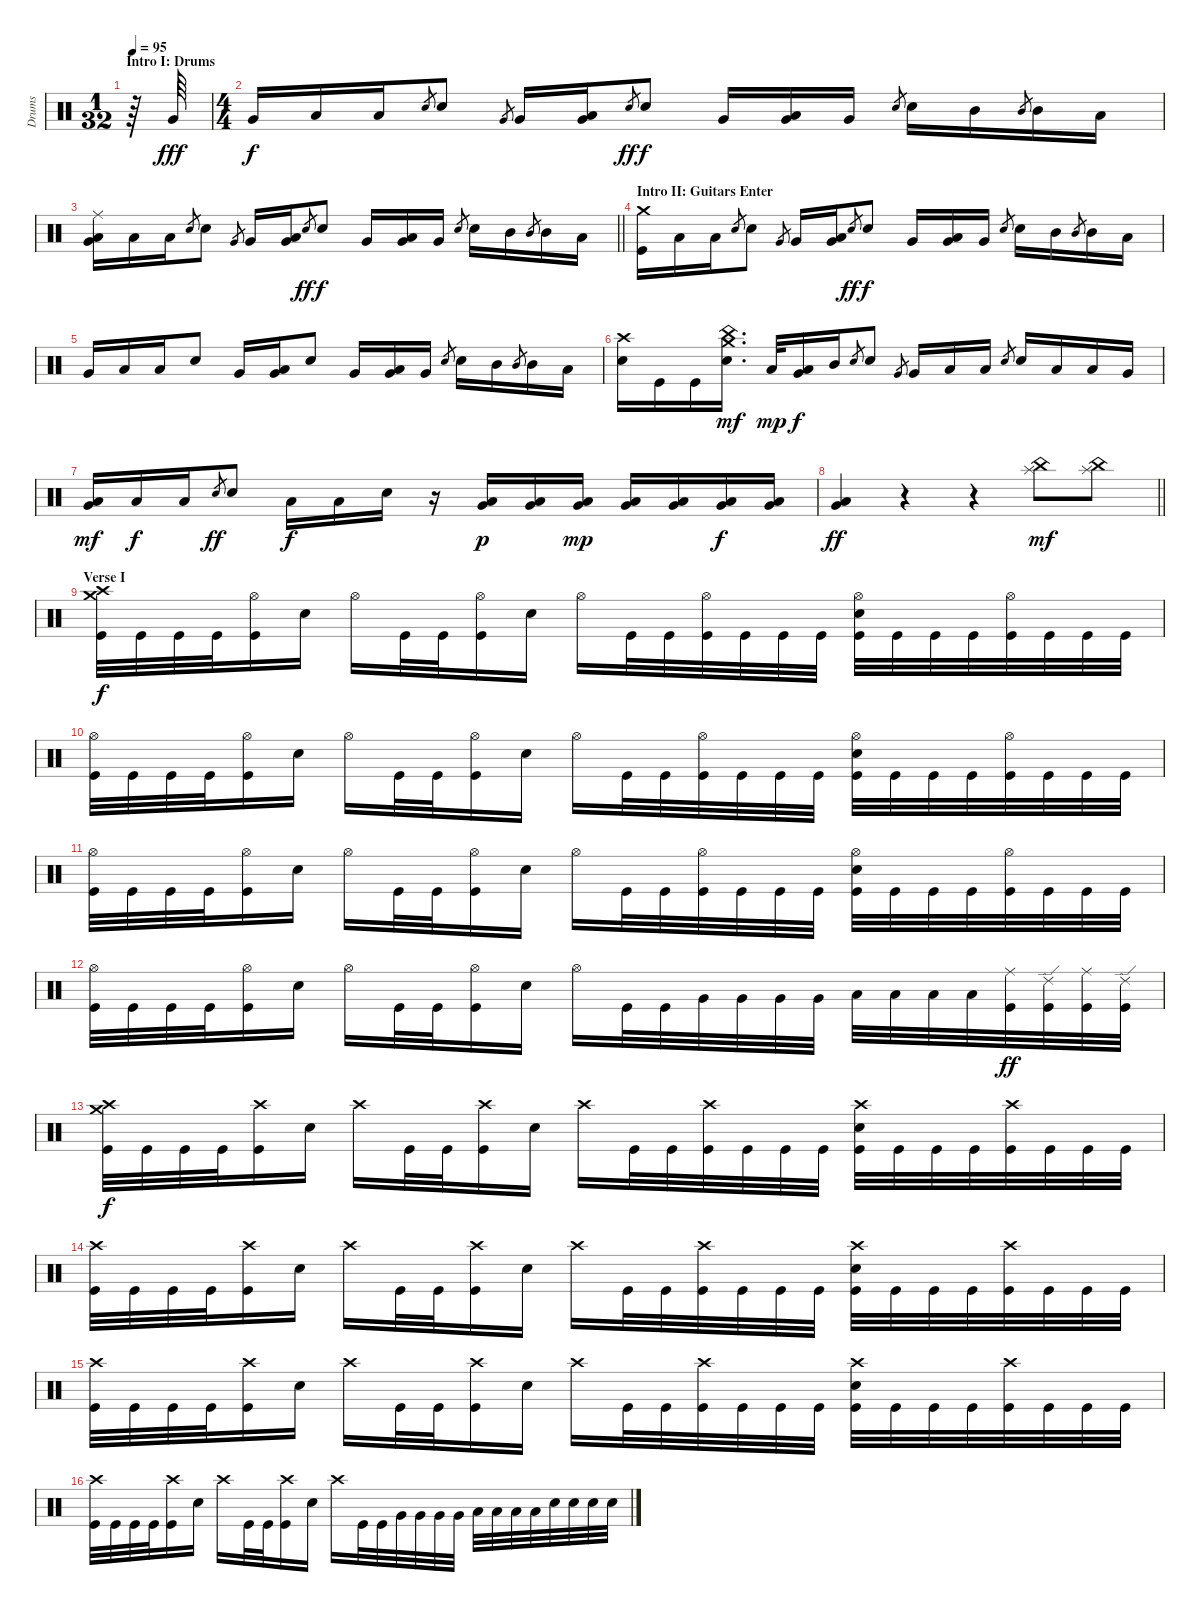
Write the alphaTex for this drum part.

\track ("Drums" "Drums") {instrument percussion}
\staff {score}
\articulation defaults
\ts (1 32)
\section ("" "Intro I: Drums")
\tempo 95
\clef neutral
\ks c
r.64{dy fff} "Very Low Tom (hit)".64 |
\ts (4 4)
"Very Low Tom (hit)".16{dy f} "Low Floor Tom (hit)".16 "Low Floor Tom (hit)".16 "Electric Snare (hit)".8{gr} "Electric Snare (hit)".8 "Very Low Tom (hit)".8{gr} "Very Low Tom (hit)".16 ("Very Low Tom (hit)" "Low Floor Tom (hit)").16 "Electric Snare (hit)".8{gr dy ff} "Electric Snare (hit)".8{dy f} "Very Low Tom (hit)".16 ("Very Low Tom (hit)" "Low Floor Tom (hit)").16 "Very Low Tom (hit)".16 "Electric Snare (hit)".8{gr} "Electric Snare (hit)".16 "Mid Tom (hit)".16 "Mid Tom (hit)".8{gr} "Mid Tom (hit)".16 "Low Tom (hit)".16 |
\barLineRight lightlight
("Ride (middle)" "Very Low Tom (hit)" "Low Floor Tom (hit)").16 "Low Floor Tom (hit)".16 "Low Floor Tom (hit)".16 "Electric Snare (hit)".8{gr} "Electric Snare (hit)".8 "Very Low Tom (hit)".8{gr} "Very Low Tom (hit)".16 ("Very Low Tom (hit)" "Low Floor Tom (hit)").16 "Electric Snare (hit)".8{gr dy ff} "Electric Snare (hit)".8{dy f} "Very Low Tom (hit)".16 ("Very Low Tom (hit)" "Low Floor Tom (hit)").16 "Very Low Tom (hit)".16 "Electric Snare (hit)".8{gr} "Electric Snare (hit)".16 "Mid Tom (hit)".16 "Mid Tom (hit)".8{gr} "Mid Tom (hit)".16 "Low Tom (hit)".16 |
\section ("" "Intro II: Guitars Enter")
("Crash medium (hit)" "Kick (hit)").16 "Low Floor Tom (hit)".16 "Low Floor Tom (hit)".16 "Electric Snare (hit)".8{gr} "Electric Snare (hit)".8 "Very Low Tom (hit)".8{gr} "Very Low Tom (hit)".16 ("Very Low Tom (hit)" "Low Floor Tom (hit)").16 "Electric Snare (hit)".8{gr dy ff} "Electric Snare (hit)".8{dy f} "Very Low Tom (hit)".16 ("Very Low Tom (hit)" "Low Floor Tom (hit)").16 "Very Low Tom (hit)".16 "Electric Snare (hit)".8{gr} "Electric Snare (hit)".16 "Mid Tom (hit)".16 "Mid Tom (hit)".8{gr} "Mid Tom (hit)".16 "Low Tom (hit)".16 |
"Very Low Tom (hit)".16 "Low Floor Tom (hit)".16 "Low Floor Tom (hit)".16 "Electric Snare (hit)".8 "Very Low Tom (hit)".16 ("Very Low Tom (hit)" "Low Floor Tom (hit)").16 "Electric Snare (hit)".8 "Very Low Tom (hit)".16 ("Very Low Tom (hit)" "Low Floor Tom (hit)").16 "Very Low Tom (hit)".16 "Electric Snare (hit)".8{gr} "Electric Snare (hit)".16 "Mid Tom (hit)".16 "Mid Tom (hit)".8{gr} "Mid Tom (hit)".16 "Low Tom (hit)".16 |
("Crash high (hit)" "Electric Snare (hit)").16 "Kick (hit)".16 "Kick (hit)".16 ("Crash medium (hit)" "China (hit)" "Electric Snare (hit)").16{d dy mf} "Low Tom (hit)".32{dy mp} ("Low Tom (hit)" "Very Low Tom (hit)").16{dy f} "Mid Tom (hit)".16 "Electric Snare (hit)".8{gr} "Electric Snare (hit)".8 "Very Low Tom (hit)".8{gr} "Very Low Tom (hit)".16 "Low Floor Tom (hit)".16 "Low Floor Tom (hit)".16 "Electric Snare (hit)".8{gr} "Electric Snare (hit)".16 "Low Tom (hit)".16 "Low Tom (hit)".16 "Very Low Tom (hit)".16 |
("Very Low Tom (hit)" "Low Floor Tom (hit)").16{dy mf} "Low Tom (hit)".16{dy f} "Low Tom (hit)".16 "Electric Snare (hit)".8{gr dy ff} "Electric Snare (hit)".8 "Low Tom (hit)".16{dy f} "Low Tom (hit)".16 "Electric Snare (hit)".16 r.16 ("Very Low Tom (hit)" "Low Floor Tom (hit)").16{dy p} ("Very Low Tom (hit)" "Low Floor Tom (hit)").16 ("Very Low Tom (hit)" "Low Floor Tom (hit)").16{dy mp} ("Very Low Tom (hit)" "Low Floor Tom (hit)").16 ("Very Low Tom (hit)" "Low Floor Tom (hit)").16 ("Very Low Tom (hit)" "Low Floor Tom (hit)").16{dy f} ("Very Low Tom (hit)" "Low Floor Tom (hit)").16 |
\barLineRight lightlight
("Very Low Tom (hit)" "Low Floor Tom (hit)").4{dy ff} r.4 r.4 ("Splash (hit)" "China (hit)").8{dy mf} ("Splash (hit)" "China (hit)").8 |
\section ("" "Verse I")
("Crash medium (hit)" "Crash high (hit)" "Kick (hit)").32{dy f} "Kick (hit)".32 "Kick (hit)".32 "Kick (hit)".32 ("Hi-Hat (open)" "Kick (hit)").16 "Electric Snare (hit)".16 "Hi-Hat (open)".16 "Kick (hit)".32 "Kick (hit)".32 ("Hi-Hat (open)" "Kick (hit)").16 "Electric Snare (hit)".16 "Hi-Hat (open)".16 "Kick (hit)".32 "Kick (hit)".32 ("Hi-Hat (open)" "Kick (hit)").32 "Kick (hit)".32 "Kick (hit)".32 "Kick (hit)".32 ("Hi-Hat (open)" "Electric Snare (hit)" "Kick (hit)").32 "Kick (hit)".32 "Kick (hit)".32 "Kick (hit)".32 ("Hi-Hat (open)" "Kick (hit)").32 "Kick (hit)".32 "Kick (hit)".32 "Kick (hit)".32 |
("Hi-Hat (open)" "Kick (hit)").32 "Kick (hit)".32 "Kick (hit)".32 "Kick (hit)".32 ("Hi-Hat (open)" "Kick (hit)").16 "Electric Snare (hit)".16 "Hi-Hat (open)".16 "Kick (hit)".32 "Kick (hit)".32 ("Hi-Hat (open)" "Kick (hit)").16 "Electric Snare (hit)".16 "Hi-Hat (open)".16 "Kick (hit)".32 "Kick (hit)".32 ("Hi-Hat (open)" "Kick (hit)").32 "Kick (hit)".32 "Kick (hit)".32 "Kick (hit)".32 ("Hi-Hat (open)" "Electric Snare (hit)" "Kick (hit)").32 "Kick (hit)".32 "Kick (hit)".32 "Kick (hit)".32 ("Hi-Hat (open)" "Kick (hit)").32 "Kick (hit)".32 "Kick (hit)".32 "Kick (hit)".32 |
("Hi-Hat (open)" "Kick (hit)").32 "Kick (hit)".32 "Kick (hit)".32 "Kick (hit)".32 ("Hi-Hat (open)" "Kick (hit)").16 "Electric Snare (hit)".16 "Hi-Hat (open)".16 "Kick (hit)".32 "Kick (hit)".32 ("Hi-Hat (open)" "Kick (hit)").16 "Electric Snare (hit)".16 "Hi-Hat (open)".16 "Kick (hit)".32 "Kick (hit)".32 ("Hi-Hat (open)" "Kick (hit)").32 "Kick (hit)".32 "Kick (hit)".32 "Kick (hit)".32 ("Hi-Hat (open)" "Electric Snare (hit)" "Kick (hit)").32 "Kick (hit)".32 "Kick (hit)".32 "Kick (hit)".32 ("Hi-Hat (open)" "Kick (hit)").32 "Kick (hit)".32 "Kick (hit)".32 "Kick (hit)".32 |
("Hi-Hat (open)" "Kick (hit)").32 "Kick (hit)".32 "Kick (hit)".32 "Kick (hit)".32 ("Hi-Hat (open)" "Kick (hit)").16 "Electric Snare (hit)".16 "Hi-Hat (open)".16 "Kick (hit)".32 "Kick (hit)".32 ("Hi-Hat (open)" "Kick (hit)").16 "Electric Snare (hit)".16 "Hi-Hat (open)".16 "Kick (hit)".32 "Kick (hit)".32 "Very Low Tom (hit)".32 "Very Low Tom (hit)".32 "Very Low Tom (hit)".32 "Very Low Tom (hit)".32 "Low Floor Tom (hit)".32 "Low Floor Tom (hit)".32 "Low Floor Tom (hit)".32 "Low Floor Tom (hit)".32 ("Ride (middle)" "Kick (hit)").32{dy ff} ("Ride (edge) 2" "Kick (hit)").32 ("Ride (middle)" "Kick (hit)").32 ("Ride (edge) 2" "Kick (hit)").32 |
("Crash medium (hit)" "Crash high (hit)" "Kick (hit)").32{dy f} "Kick (hit)".32 "Kick (hit)".32 "Kick (hit)".32 ("Crash high (hit)" "Kick (hit)").16 "Electric Snare (hit)".16 "Crash high (hit)".16 "Kick (hit)".32 "Kick (hit)".32 ("Crash high (hit)" "Kick (hit)").16 "Electric Snare (hit)".16 "Crash high (hit)".16 "Kick (hit)".32 "Kick (hit)".32 ("Crash high (hit)" "Kick (hit)").32 "Kick (hit)".32 "Kick (hit)".32 "Kick (hit)".32 ("Crash high (hit)" "Electric Snare (hit)" "Kick (hit)").32 "Kick (hit)".32 "Kick (hit)".32 "Kick (hit)".32 ("Crash high (hit)" "Kick (hit)").32 "Kick (hit)".32 "Kick (hit)".32 "Kick (hit)".32 |
("Crash high (hit)" "Kick (hit)").32 "Kick (hit)".32 "Kick (hit)".32 "Kick (hit)".32 ("Crash high (hit)" "Kick (hit)").16 "Electric Snare (hit)".16 "Crash high (hit)".16 "Kick (hit)".32 "Kick (hit)".32 ("Crash high (hit)" "Kick (hit)").16 "Electric Snare (hit)".16 "Crash high (hit)".16 "Kick (hit)".32 "Kick (hit)".32 ("Crash high (hit)" "Kick (hit)").32 "Kick (hit)".32 "Kick (hit)".32 "Kick (hit)".32 ("Crash high (hit)" "Electric Snare (hit)" "Kick (hit)").32 "Kick (hit)".32 "Kick (hit)".32 "Kick (hit)".32 ("Crash high (hit)" "Kick (hit)").32 "Kick (hit)".32 "Kick (hit)".32 "Kick (hit)".32 |
("Crash high (hit)" "Kick (hit)").32 "Kick (hit)".32 "Kick (hit)".32 "Kick (hit)".32 ("Crash high (hit)" "Kick (hit)").16 "Electric Snare (hit)".16 "Crash high (hit)".16 "Kick (hit)".32 "Kick (hit)".32 ("Crash high (hit)" "Kick (hit)").16 "Electric Snare (hit)".16 "Crash high (hit)".16 "Kick (hit)".32 "Kick (hit)".32 ("Crash high (hit)" "Kick (hit)").32 "Kick (hit)".32 "Kick (hit)".32 "Kick (hit)".32 ("Crash high (hit)" "Electric Snare (hit)" "Kick (hit)").32 "Kick (hit)".32 "Kick (hit)".32 "Kick (hit)".32 ("Crash high (hit)" "Kick (hit)").32 "Kick (hit)".32 "Kick (hit)".32 "Kick (hit)".32 |
("Crash high (hit)" "Kick (hit)").32 "Kick (hit)".32 "Kick (hit)".32 "Kick (hit)".32 ("Crash high (hit)" "Kick (hit)").16 "Electric Snare (hit)".16 "Crash high (hit)".16 "Kick (hit)".32 "Kick (hit)".32 ("Crash high (hit)" "Kick (hit)").16 "Electric Snare (hit)".16 "Crash high (hit)".16 "Kick (hit)".32 "Kick (hit)".32 "Very Low Tom (hit)".32 "Very Low Tom (hit)".32 "Very Low Tom (hit)".32 "Very Low Tom (hit)".32 "Low Floor Tom (hit)".32 "Low Floor Tom (hit)".32 "Low Floor Tom (hit)".32 "Low Floor Tom (hit)".32 "Electric Snare (hit)".32 "Electric Snare (hit)".32 "Electric Snare (hit)".32 "Electric Snare (hit)".32
